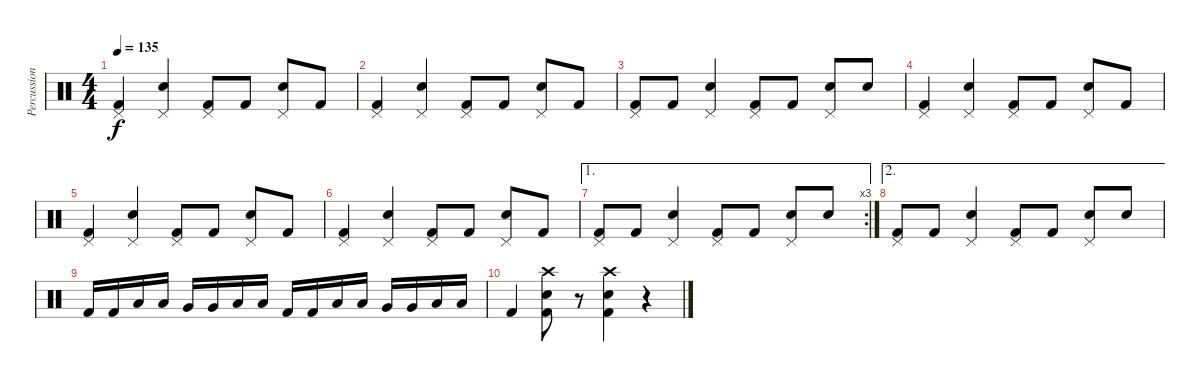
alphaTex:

\track ("Percussion" "Percussion") {instrument percussion}
\staff {score}
\articulation defaults
\ts (4 4)
\tempo 135
\clef neutral
\ks c
("Pedal Hi-Hat (hit)" "Kick (hit) 2").4{dy f} ("Pedal Hi-Hat (hit)" "Electric Snare (hit)").4 ("Pedal Hi-Hat (hit)" "Kick (hit) 2").8 "Kick (hit) 2".8 ("Pedal Hi-Hat (hit)" "Electric Snare (hit)").8 "Kick (hit) 2".8 |
("Pedal Hi-Hat (hit)" "Kick (hit) 2").4 ("Pedal Hi-Hat (hit)" "Electric Snare (hit)").4 ("Pedal Hi-Hat (hit)" "Kick (hit) 2").8 "Kick (hit) 2".8 ("Pedal Hi-Hat (hit)" "Electric Snare (hit)").8 "Kick (hit) 2".8 |
("Pedal Hi-Hat (hit)" "Kick (hit) 2").8 "Kick (hit) 2".8 ("Pedal Hi-Hat (hit)" "Electric Snare (hit)").4 ("Pedal Hi-Hat (hit)" "Kick (hit) 2").8 "Kick (hit) 2".8 ("Pedal Hi-Hat (hit)" "Electric Snare (hit)").8 "Electric Snare (hit)".8 |
("Pedal Hi-Hat (hit)" "Kick (hit) 2").4 ("Pedal Hi-Hat (hit)" "Electric Snare (hit)").4 ("Pedal Hi-Hat (hit)" "Kick (hit) 2").8 "Kick (hit) 2".8 ("Pedal Hi-Hat (hit)" "Electric Snare (hit)").8 "Kick (hit) 2".8 |
("Pedal Hi-Hat (hit)" "Kick (hit) 2").4 ("Pedal Hi-Hat (hit)" "Electric Snare (hit)").4 ("Pedal Hi-Hat (hit)" "Kick (hit) 2").8 "Kick (hit) 2".8 ("Pedal Hi-Hat (hit)" "Electric Snare (hit)").8 "Kick (hit) 2".8 |
("Pedal Hi-Hat (hit)" "Kick (hit) 2").4 ("Pedal Hi-Hat (hit)" "Electric Snare (hit)").4 ("Pedal Hi-Hat (hit)" "Kick (hit) 2").8 "Kick (hit) 2".8 ("Pedal Hi-Hat (hit)" "Electric Snare (hit)").8 "Kick (hit) 2".8 |
\ae 1
\rc 3
("Pedal Hi-Hat (hit)" "Kick (hit) 2").8 "Kick (hit) 2".8 ("Pedal Hi-Hat (hit)" "Electric Snare (hit)").4 ("Pedal Hi-Hat (hit)" "Kick (hit) 2").8 "Kick (hit) 2".8 ("Pedal Hi-Hat (hit)" "Electric Snare (hit)").8 "Electric Snare (hit)".8 |
\ae 2
("Pedal Hi-Hat (hit)" "Kick (hit) 2").8 "Kick (hit) 2".8 ("Pedal Hi-Hat (hit)" "Electric Snare (hit)").4 ("Pedal Hi-Hat (hit)" "Kick (hit) 2").8 "Kick (hit) 2".8 ("Pedal Hi-Hat (hit)" "Electric Snare (hit)").8 "Electric Snare (hit)".8 |
"Kick (hit) 2".16 "Kick (hit) 2".16 "Low Tom (hit)".16 "Low Tom (hit)".16 "Very Low Tom (hit)".16 "Very Low Tom (hit)".16 "Low Floor Tom (hit)".16 "Low Floor Tom (hit)".16 "Kick (hit) 2".16 "Kick (hit) 2".16 "Low Floor Tom (hit)".16 "Low Floor Tom (hit)".16 "Very Low Tom (hit)".16 "Very Low Tom (hit)".16 "Low Tom (hit)".16 "Low Tom (hit)".16 |
"Kick (hit) 2".4 ("Crash high (hit)" "Electric Snare (hit)" "Kick (hit) 2").8 r.8 ("Crash high (hit)" "Electric Snare (hit)" "Kick (hit) 2").4 r.4
